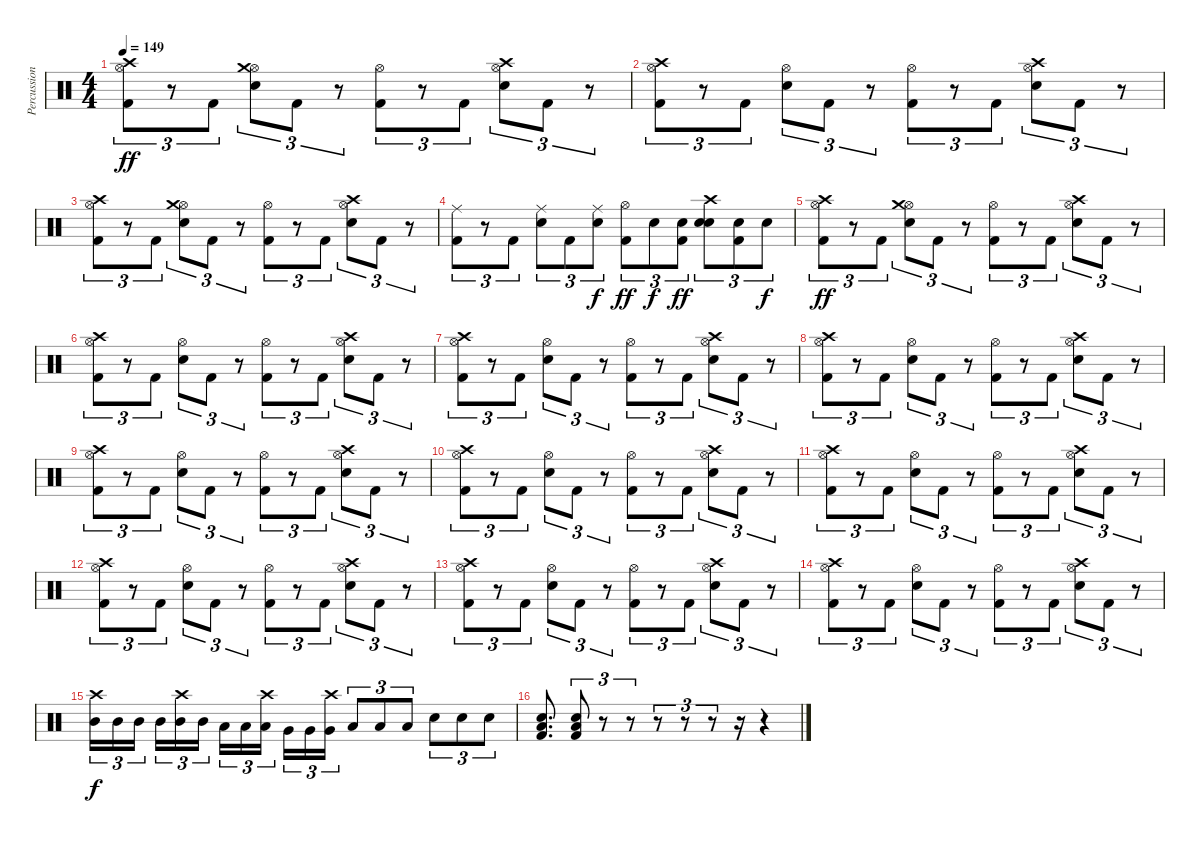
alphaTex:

\track ("Percussion" "Percussion") {instrument percussion}
\staff {score}
\articulation defaults
\ts (4 4)
\tempo 149
\clef neutral
\ks c
("Kick (hit) 2" "Hi-Hat (open)" "Crash high (hit)").8{tu (3 2) dy ff} r.8{tu (3 2)} "Kick (hit) 2".8{tu (3 2)} ("Electric Snare (hit)" "Hi-Hat (open)" "Crash medium (hit)").8{tu (3 2)} "Kick (hit) 2".8{tu (3 2)} r.8{tu (3 2)} ("Kick (hit) 2" "Hi-Hat (open)").8{tu (3 2)} r.8{tu (3 2)} "Kick (hit) 2".8{tu (3 2)} ("Electric Snare (hit)" "Hi-Hat (open)" "Crash high (hit)").8{tu (3 2)} "Kick (hit) 2".8{tu (3 2)} r.8{tu (3 2)} |
("Kick (hit) 2" "Hi-Hat (open)" "Crash high (hit)").8{tu (3 2)} r.8{tu (3 2)} "Kick (hit) 2".8{tu (3 2)} ("Electric Snare (hit)" "Hi-Hat (open)").8{tu (3 2)} "Kick (hit) 2".8{tu (3 2)} r.8{tu (3 2)} ("Kick (hit) 2" "Hi-Hat (open)").8{tu (3 2)} r.8{tu (3 2)} "Kick (hit) 2".8{tu (3 2)} ("Electric Snare (hit)" "Hi-Hat (open)" "Crash high (hit)").8{tu (3 2)} "Kick (hit) 2".8{tu (3 2)} r.8{tu (3 2)} |
("Kick (hit) 2" "Hi-Hat (open)" "Crash high (hit)").8{tu (3 2)} r.8{tu (3 2)} "Kick (hit) 2".8{tu (3 2)} ("Electric Snare (hit)" "Hi-Hat (open)" "Crash medium (hit)").8{tu (3 2)} "Kick (hit) 2".8{tu (3 2)} r.8{tu (3 2)} ("Kick (hit) 2" "Hi-Hat (open)").8{tu (3 2)} r.8{tu (3 2)} "Kick (hit) 2".8{tu (3 2)} ("Electric Snare (hit)" "Hi-Hat (open)" "Crash high (hit)").8{tu (3 2)} "Kick (hit) 2".8{tu (3 2)} r.8{tu (3 2)} |
("Kick (hit) 2" "Ride (middle)").8{tu (3 2)} r.8{tu (3 2)} "Kick (hit) 2".8{tu (3 2)} ("Electric Snare (hit)" "Ride (middle)").8{tu (3 2)} "Kick (hit) 2".8{tu (3 2)} ("Electric Snare (hit)" "Ride (middle)").8{tu (3 2) dy f} ("Kick (hit) 2" "Hi-Hat (open)").8{tu (3 2) dy ff} "Electric Snare (hit)".8{tu (3 2) dy f} ("Kick (hit) 2" "Electric Snare (hit)").8{tu (3 2) dy ff} ("Snare (hit) 2" "Electric Snare (hit)" "Crash high (hit)").8{tu (3 2)} ("Kick (hit) 2" "Electric Snare (hit)").8{tu (3 2)} "Electric Snare (hit)".8{tu (3 2) dy f} |
("Kick (hit) 2" "Hi-Hat (open)" "Crash high (hit)").8{tu (3 2) dy ff} r.8{tu (3 2)} "Kick (hit) 2".8{tu (3 2)} ("Electric Snare (hit)" "Hi-Hat (open)" "Crash medium (hit)").8{tu (3 2)} "Kick (hit) 2".8{tu (3 2)} r.8{tu (3 2)} ("Kick (hit) 2" "Hi-Hat (open)").8{tu (3 2)} r.8{tu (3 2)} "Kick (hit) 2".8{tu (3 2)} ("Electric Snare (hit)" "Hi-Hat (open)" "Crash high (hit)").8{tu (3 2)} "Kick (hit) 2".8{tu (3 2)} r.8{tu (3 2)} |
("Kick (hit) 2" "Hi-Hat (open)" "Crash high (hit)").8{tu (3 2)} r.8{tu (3 2)} "Kick (hit) 2".8{tu (3 2)} ("Electric Snare (hit)" "Hi-Hat (open)").8{tu (3 2)} "Kick (hit) 2".8{tu (3 2)} r.8{tu (3 2)} ("Kick (hit) 2" "Hi-Hat (open)").8{tu (3 2)} r.8{tu (3 2)} "Kick (hit) 2".8{tu (3 2)} ("Electric Snare (hit)" "Hi-Hat (open)" "Crash high (hit)").8{tu (3 2)} "Kick (hit) 2".8{tu (3 2)} r.8{tu (3 2)} |
("Kick (hit) 2" "Hi-Hat (open)" "Crash high (hit)").8{tu (3 2)} r.8{tu (3 2)} "Kick (hit) 2".8{tu (3 2)} ("Electric Snare (hit)" "Hi-Hat (open)").8{tu (3 2)} "Kick (hit) 2".8{tu (3 2)} r.8{tu (3 2)} ("Kick (hit) 2" "Hi-Hat (open)").8{tu (3 2)} r.8{tu (3 2)} "Kick (hit) 2".8{tu (3 2)} ("Electric Snare (hit)" "Hi-Hat (open)" "Crash high (hit)").8{tu (3 2)} "Kick (hit) 2".8{tu (3 2)} r.8{tu (3 2)} |
("Kick (hit) 2" "Hi-Hat (open)" "Crash high (hit)").8{tu (3 2)} r.8{tu (3 2)} "Kick (hit) 2".8{tu (3 2)} ("Electric Snare (hit)" "Hi-Hat (open)").8{tu (3 2)} "Kick (hit) 2".8{tu (3 2)} r.8{tu (3 2)} ("Kick (hit) 2" "Hi-Hat (open)").8{tu (3 2)} r.8{tu (3 2)} "Kick (hit) 2".8{tu (3 2)} ("Electric Snare (hit)" "Hi-Hat (open)" "Crash high (hit)").8{tu (3 2)} "Kick (hit) 2".8{tu (3 2)} r.8{tu (3 2)} |
("Kick (hit) 2" "Hi-Hat (open)" "Crash high (hit)").8{tu (3 2)} r.8{tu (3 2)} "Kick (hit) 2".8{tu (3 2)} ("Electric Snare (hit)" "Hi-Hat (open)").8{tu (3 2)} "Kick (hit) 2".8{tu (3 2)} r.8{tu (3 2)} ("Kick (hit) 2" "Hi-Hat (open)").8{tu (3 2)} r.8{tu (3 2)} "Kick (hit) 2".8{tu (3 2)} ("Electric Snare (hit)" "Hi-Hat (open)" "Crash high (hit)").8{tu (3 2)} "Kick (hit) 2".8{tu (3 2)} r.8{tu (3 2)} |
("Kick (hit) 2" "Hi-Hat (open)" "Crash high (hit)").8{tu (3 2)} r.8{tu (3 2)} "Kick (hit) 2".8{tu (3 2)} ("Electric Snare (hit)" "Hi-Hat (open)").8{tu (3 2)} "Kick (hit) 2".8{tu (3 2)} r.8{tu (3 2)} ("Kick (hit) 2" "Hi-Hat (open)").8{tu (3 2)} r.8{tu (3 2)} "Kick (hit) 2".8{tu (3 2)} ("Electric Snare (hit)" "Hi-Hat (open)" "Crash high (hit)").8{tu (3 2)} "Kick (hit) 2".8{tu (3 2)} r.8{tu (3 2)} |
("Kick (hit) 2" "Hi-Hat (open)" "Crash high (hit)").8{tu (3 2)} r.8{tu (3 2)} "Kick (hit) 2".8{tu (3 2)} ("Snare (hit) 2" "Hi-Hat (open)").8{tu (3 2)} "Kick (hit) 2".8{tu (3 2)} r.8{tu (3 2)} ("Kick (hit) 2" "Hi-Hat (open)").8{tu (3 2)} r.8{tu (3 2)} "Kick (hit) 2".8{tu (3 2)} ("Snare (hit) 2" "Hi-Hat (open)" "Crash high (hit)").8{tu (3 2)} "Kick (hit) 2".8{tu (3 2)} r.8{tu (3 2)} |
("Kick (hit) 2" "Hi-Hat (open)" "Crash high (hit)").8{tu (3 2)} r.8{tu (3 2)} "Kick (hit) 2".8{tu (3 2)} ("Snare (hit) 2" "Hi-Hat (open)").8{tu (3 2)} "Kick (hit) 2".8{tu (3 2)} r.8{tu (3 2)} ("Kick (hit) 2" "Hi-Hat (open)").8{tu (3 2)} r.8{tu (3 2)} "Kick (hit) 2".8{tu (3 2)} ("Snare (hit) 2" "Hi-Hat (open)" "Crash high (hit)").8{tu (3 2)} "Kick (hit) 2".8{tu (3 2)} r.8{tu (3 2)} |
("Kick (hit) 2" "Hi-Hat (open)" "Crash high (hit)").8{tu (3 2)} r.8{tu (3 2)} "Kick (hit) 2".8{tu (3 2)} ("Snare (hit) 2" "Hi-Hat (open)").8{tu (3 2)} "Kick (hit) 2".8{tu (3 2)} r.8{tu (3 2)} ("Kick (hit) 2" "Hi-Hat (open)").8{tu (3 2)} r.8{tu (3 2)} "Kick (hit) 2".8{tu (3 2)} ("Snare (hit) 2" "Hi-Hat (open)" "Crash high (hit)").8{tu (3 2)} "Kick (hit) 2".8{tu (3 2)} r.8{tu (3 2)} |
("Kick (hit) 2" "Hi-Hat (open)" "Crash high (hit)").8{tu (3 2)} r.8{tu (3 2)} "Kick (hit) 2".8{tu (3 2)} ("Snare (hit) 2" "Hi-Hat (open)").8{tu (3 2)} "Kick (hit) 2".8{tu (3 2)} r.8{tu (3 2)} ("Kick (hit) 2" "Hi-Hat (open)").8{tu (3 2)} r.8{tu (3 2)} "Kick (hit) 2".8{tu (3 2)} ("Snare (hit) 2" "Hi-Hat (open)" "Crash high (hit)").8{tu (3 2)} "Kick (hit) 2".8{tu (3 2)} r.8{tu (3 2)} |
("Mid Tom (hit)" "Crash high (hit)").16{tu (3 2) dy f} "Mid Tom (hit)".16{tu (3 2)} "Mid Tom (hit)".16{tu (3 2) beam splitsecondary} "Mid Tom (hit)".16{tu (3 2)} ("Mid Tom (hit)" "Crash high (hit)").16{tu (3 2)} "Mid Tom (hit)".16{tu (3 2)} "Low Tom (hit)".16{tu (3 2)} "Low Tom (hit)".16{tu (3 2)} ("Low Tom (hit)" "Crash high (hit)").16{tu (3 2) beam splitsecondary} "Very Low Tom (hit)".16{tu (3 2)} "Very Low Tom (hit)".16{tu (3 2)} ("Very Low Tom (hit)" "Crash high (hit)").16{tu (3 2)} "Low Tom (hit)".8{tu (3 2)} "Low Tom (hit)".8{tu (3 2)} "Low Tom (hit)".8{tu (3 2)} "Electric Snare (hit)".8{tu (3 2)} "Electric Snare (hit)".8{tu (3 2)} "Electric Snare (hit)".8{tu (3 2)} |
("Kick (hit) 2" "Snare (hit) 2" "Low Tom (hit)").8{d} ("Kick (hit) 2" "Snare (hit) 2" "Low Tom (hit)").8{tu (3 2)} r.8{tu (3 2)} r.8{tu (3 2)} r.8{tu (3 2)} r.8{tu (3 2)} r.8{tu (3 2)} r.16 r.4
